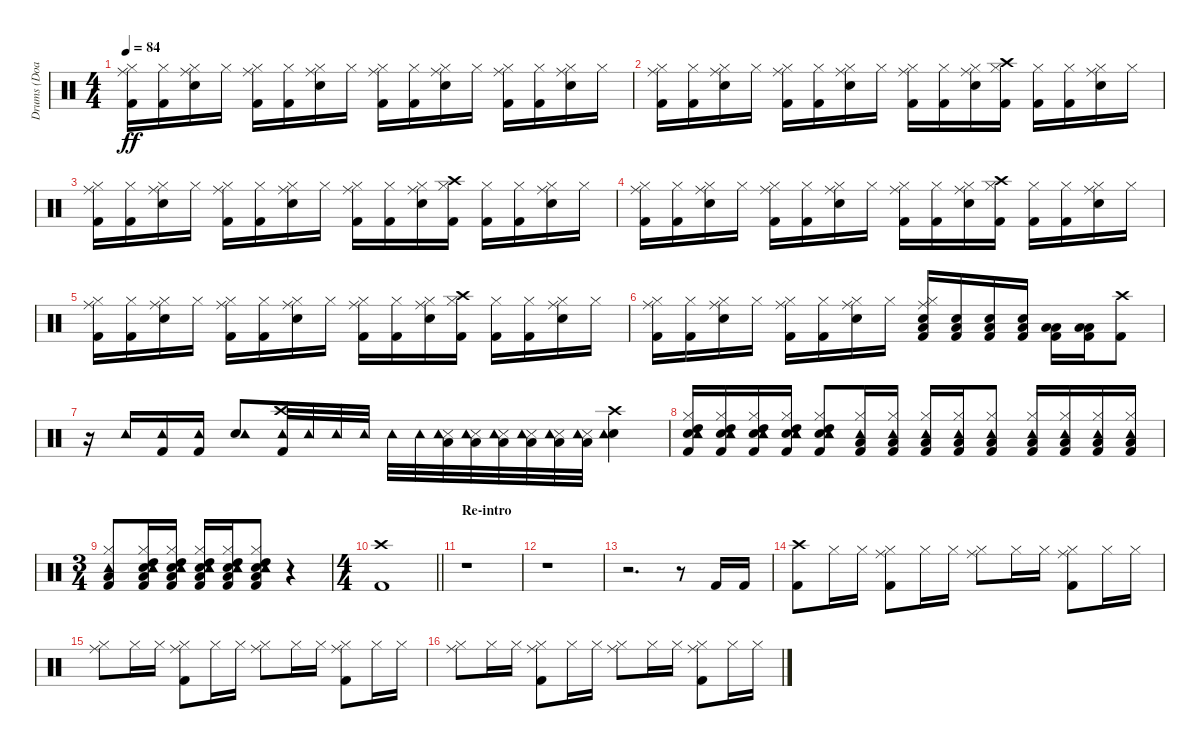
\track ("Drums (Doane Perry)" "Drums (Doa") {instrument percussion}
\staff {score}
\articulation defaults
\ts (4 4)
\tempo 84
\clef neutral
\ks c
("Kick (hit) 2" "Hi-Hat (closed)" "Ride (middle)").16{dy ff} ("Kick (hit) 2" "Hi-Hat (closed)").16 ("Snare (hit) 2" "Hi-Hat (closed)" "Ride (middle)").16 "Hi-Hat (closed)".16 ("Kick (hit) 2" "Hi-Hat (closed)" "Ride (middle)").16 ("Kick (hit) 2" "Hi-Hat (closed)").16 ("Snare (hit) 2" "Hi-Hat (closed)" "Ride (middle)").16 "Hi-Hat (closed)".16 ("Kick (hit) 2" "Hi-Hat (closed)" "Ride (middle)").16 ("Kick (hit) 2" "Hi-Hat (closed)").16 ("Snare (hit) 2" "Hi-Hat (closed)" "Ride (middle)").16 "Hi-Hat (closed)".16 ("Kick (hit) 2" "Hi-Hat (closed)" "Ride (middle)").16 ("Kick (hit) 2" "Hi-Hat (closed)").16 ("Snare (hit) 2" "Hi-Hat (closed)" "Ride (middle)").16 "Hi-Hat (closed)".16 |
("Kick (hit) 2" "Hi-Hat (closed)" "Ride (middle)").16 ("Kick (hit) 2" "Hi-Hat (closed)").16 ("Snare (hit) 2" "Hi-Hat (closed)" "Ride (middle)").16 "Hi-Hat (closed)".16 ("Kick (hit) 2" "Hi-Hat (closed)" "Ride (middle)").16 ("Kick (hit) 2" "Hi-Hat (closed)").16 ("Snare (hit) 2" "Hi-Hat (closed)" "Ride (middle)").16 "Hi-Hat (closed)".16 ("Kick (hit) 2" "Hi-Hat (closed)" "Ride (middle)").16 ("Kick (hit) 2" "Hi-Hat (closed)").16 ("Snare (hit) 2" "Hi-Hat (closed)" "Ride (middle)").16 ("Kick (hit) 2" "Hi-Hat (closed)" "Crash high (hit)").16 ("Kick (hit) 2" "Hi-Hat (closed)").16 ("Kick (hit) 2" "Hi-Hat (closed)").16 ("Snare (hit) 2" "Hi-Hat (closed)" "Ride (middle)").16 "Hi-Hat (closed)".16 |
("Kick (hit) 2" "Hi-Hat (closed)" "Ride (middle)").16 ("Kick (hit) 2" "Hi-Hat (closed)").16 ("Snare (hit) 2" "Hi-Hat (closed)" "Ride (middle)").16 "Hi-Hat (closed)".16 ("Kick (hit) 2" "Hi-Hat (closed)" "Ride (middle)").16 ("Kick (hit) 2" "Hi-Hat (closed)").16 ("Snare (hit) 2" "Hi-Hat (closed)" "Ride (middle)").16 "Hi-Hat (closed)".16 ("Kick (hit) 2" "Hi-Hat (closed)" "Ride (middle)").16 ("Kick (hit) 2" "Hi-Hat (closed)").16 ("Snare (hit) 2" "Hi-Hat (closed)" "Ride (middle)").16 ("Kick (hit) 2" "Hi-Hat (closed)" "Crash high (hit)").16 ("Kick (hit) 2" "Hi-Hat (closed)").16 ("Kick (hit) 2" "Hi-Hat (closed)").16 ("Snare (hit) 2" "Hi-Hat (closed)" "Ride (middle)").16 "Hi-Hat (closed)".16 |
("Kick (hit) 2" "Hi-Hat (closed)" "Ride (middle)").16 ("Kick (hit) 2" "Hi-Hat (closed)").16 ("Snare (hit) 2" "Hi-Hat (closed)" "Ride (middle)").16 "Hi-Hat (closed)".16 ("Kick (hit) 2" "Hi-Hat (closed)" "Ride (middle)").16 ("Kick (hit) 2" "Hi-Hat (closed)").16 ("Snare (hit) 2" "Hi-Hat (closed)" "Ride (middle)").16 "Hi-Hat (closed)".16 ("Kick (hit) 2" "Hi-Hat (closed)" "Ride (middle)").16 ("Kick (hit) 2" "Hi-Hat (closed)").16 ("Snare (hit) 2" "Hi-Hat (closed)" "Ride (middle)").16 ("Kick (hit) 2" "Hi-Hat (closed)" "Crash high (hit)").16 ("Kick (hit) 2" "Hi-Hat (closed)").16 ("Kick (hit) 2" "Hi-Hat (closed)").16 ("Snare (hit) 2" "Hi-Hat (closed)" "Ride (middle)").16 "Hi-Hat (closed)".16 |
("Kick (hit) 2" "Hi-Hat (closed)" "Ride (middle)").16 ("Kick (hit) 2" "Hi-Hat (closed)").16 ("Snare (hit) 2" "Hi-Hat (closed)" "Ride (middle)").16 "Hi-Hat (closed)".16 ("Kick (hit) 2" "Hi-Hat (closed)" "Ride (middle)").16 ("Kick (hit) 2" "Hi-Hat (closed)").16 ("Snare (hit) 2" "Hi-Hat (closed)" "Ride (middle)").16 "Hi-Hat (closed)".16 ("Kick (hit) 2" "Hi-Hat (closed)" "Ride (middle)").16 ("Kick (hit) 2" "Hi-Hat (closed)").16 ("Snare (hit) 2" "Hi-Hat (closed)" "Ride (middle)").16 ("Kick (hit) 2" "Hi-Hat (closed)" "Crash high (hit)").16 ("Kick (hit) 2" "Hi-Hat (closed)").16 ("Kick (hit) 2" "Hi-Hat (closed)").16 ("Snare (hit) 2" "Hi-Hat (closed)" "Ride (middle)").16 "Hi-Hat (closed)".16 |
("Kick (hit) 2" "Hi-Hat (closed)" "Ride (middle)").16 ("Kick (hit) 2" "Hi-Hat (closed)").16 ("Snare (hit) 2" "Hi-Hat (closed)" "Ride (middle)").16 "Hi-Hat (closed)".16 ("Kick (hit) 2" "Hi-Hat (closed)" "Ride (middle)").16 ("Kick (hit) 2" "Hi-Hat (closed)").16 ("Snare (hit) 2" "Hi-Hat (closed)" "Ride (middle)").16 "Hi-Hat (closed)".16 ("Kick (hit) 2" "Snare (hit) 2" "Low Floor Tom (hit)" "Hi-Hat (closed)" "Ride (middle)").16 ("Kick (hit) 2" "Snare (hit) 2" "Low Floor Tom (hit)").16 ("Kick (hit) 2" "Snare (hit) 2" "Low Tom (hit)").16 ("Kick (hit) 2" "Snare (hit) 2" "Low Tom (hit)").16 ("Kick (hit) 2" "Low Floor Tom (hit)" "Low Tom (hit)").16 ("Kick (hit) 2" "Low Floor Tom (hit)" "Low Tom (hit)").16 ("Kick (hit) 2" "Crash high (hit)").8 |
r.16 "Tambourine (hit)".16 ("Kick (hit) 2" "Tambourine (hit)").16 ("Kick (hit) 2" "Tambourine (hit)").16 ("Snare (hit) 2" "Tambourine (hit)").8 ("Kick (hit) 2" "Crash high (hit)" "Tambourine (hit)").32 "Tambourine (hit)".32 "Tambourine (hit)".32 "Tambourine (hit)".32 "Tambourine (hit)".32 "Tambourine (hit)".32 ("Snare (side stick) 3" "Low Tom (hit)" "Tambourine (hit)").32 ("Snare (side stick) 3" "Low Tom (hit)" "Tambourine (hit)").32 ("Snare (side stick) 3" "Low Floor Tom (hit)" "Tambourine (hit)").32 ("Snare (side stick) 3" "Low Floor Tom (hit)" "Tambourine (hit)").32 ("Snare (side stick) 3" "Low Tom (hit)" "Tambourine (hit)").32 ("Snare (side stick) 3" "Low Tom (hit)" "Tambourine (hit)").32 ("Snare (hit) 2" "Crash high (hit)" "Tambourine (hit)").4 |
("Kick (hit) 2" "Snare (hit) 2" "Hi-Hat (closed)" "High Tom (hit)" "Tambourine (hit)").16 ("Kick (hit) 2" "Snare (hit) 2" "Hi-Hat (closed)" "High Tom (hit)" "Tambourine (hit)").16 ("Kick (hit) 2" "Snare (hit) 2" "Hi-Hat (closed)" "High Tom (hit)" "Tambourine (hit)").16 ("Kick (hit) 2" "Snare (hit) 2" "Hi-Hat (closed)" "High Tom (hit)" "Tambourine (hit)").16 ("Kick (hit) 2" "Snare (hit) 2" "Hi-Hat (closed)" "High Tom (hit)" "Tambourine (hit)").8 ("Kick (hit) 2" "Low Floor Tom (hit)" "Hi-Hat (closed)" "Tambourine (hit)").16 ("Kick (hit) 2" "Low Floor Tom (hit)" "Hi-Hat (closed)" "Tambourine (hit)").16 ("Kick (hit) 2" "Low Floor Tom (hit)" "Hi-Hat (closed)" "Tambourine (hit)").16 ("Kick (hit) 2" "Low Floor Tom (hit)" "Hi-Hat (closed)" "Tambourine (hit)").16 ("Kick (hit) 2" "Low Floor Tom (hit)" "Hi-Hat (closed)" "Tambourine (hit)").8 ("Kick (hit) 2" "Hi-Hat (closed)" "Low Tom (hit)" "Tambourine (hit)").16 ("Kick (hit) 2" "Hi-Hat (closed)" "Low Tom (hit)" "Tambourine (hit)").16 ("Kick (hit) 2" "Hi-Hat (closed)" "Low Tom (hit)" "Tambourine (hit)").16 ("Kick (hit) 2" "Hi-Hat (closed)" "Low Tom (hit)" "Tambourine (hit)").16 |
\ts (3 4)
("Kick (hit) 2" "Hi-Hat (closed)" "Low Tom (hit)" "Tambourine (hit)").8 ("Kick (hit) 2" "Snare (hit) 2" "Low Floor Tom (hit)" "Hi-Hat (closed)" "High Tom (hit)" "Tambourine (hit)").16 ("Kick (hit) 2" "Snare (hit) 2" "Low Floor Tom (hit)" "Hi-Hat (closed)" "High Tom (hit)" "Tambourine (hit)").16 ("Kick (hit) 2" "Snare (hit) 2" "Low Floor Tom (hit)" "Hi-Hat (closed)" "High Tom (hit)" "Tambourine (hit)").16 ("Kick (hit) 2" "Snare (hit) 2" "Low Floor Tom (hit)" "Hi-Hat (closed)" "High Tom (hit)" "Tambourine (hit)").16 ("Kick (hit) 2" "Snare (hit) 2" "Low Floor Tom (hit)" "Hi-Hat (closed)" "High Tom (hit)" "Tambourine (hit)").8 r.4 |
\ts (4 4)
\barLineRight lightlight
("Kick (hit) 2" "Crash high (hit)").1 |
\section ("" "Re-intro")
r.1 |
r.1 |
r.2{d} r.8 "Kick (hit) 2".16 "Kick (hit) 2".16 |
("Kick (hit) 2" "Crash high (hit)").8 "Hi-Hat (closed)".16 "Hi-Hat (closed)".16 ("Kick (hit) 2" "Hi-Hat (closed)" "Ride (middle)").8 "Hi-Hat (closed)".16 "Hi-Hat (closed)".16 ("Hi-Hat (closed)" "Ride (middle)").8 "Hi-Hat (closed)".16 "Hi-Hat (closed)".16 ("Kick (hit) 2" "Hi-Hat (closed)" "Ride (middle)").8 "Hi-Hat (closed)".16 "Hi-Hat (closed)".16 |
("Hi-Hat (closed)" "Ride (middle)").8 "Hi-Hat (closed)".16 "Hi-Hat (closed)".16 ("Kick (hit) 2" "Hi-Hat (closed)" "Ride (middle)").8 "Hi-Hat (closed)".16 "Hi-Hat (closed)".16 ("Hi-Hat (closed)" "Ride (middle)").8 "Hi-Hat (closed)".16 "Hi-Hat (closed)".16 ("Kick (hit) 2" "Hi-Hat (closed)" "Ride (middle)").8 "Hi-Hat (closed)".16 "Hi-Hat (closed)".16 |
("Hi-Hat (closed)" "Ride (middle)").8 "Hi-Hat (closed)".16 "Hi-Hat (closed)".16 ("Kick (hit) 2" "Hi-Hat (closed)" "Ride (middle)").8 "Hi-Hat (closed)".16 "Hi-Hat (closed)".16 ("Hi-Hat (closed)" "Ride (middle)").8 "Hi-Hat (closed)".16 "Hi-Hat (closed)".16 ("Kick (hit) 2" "Hi-Hat (closed)" "Ride (middle)").8 "Hi-Hat (closed)".16 "Hi-Hat (closed)".16
